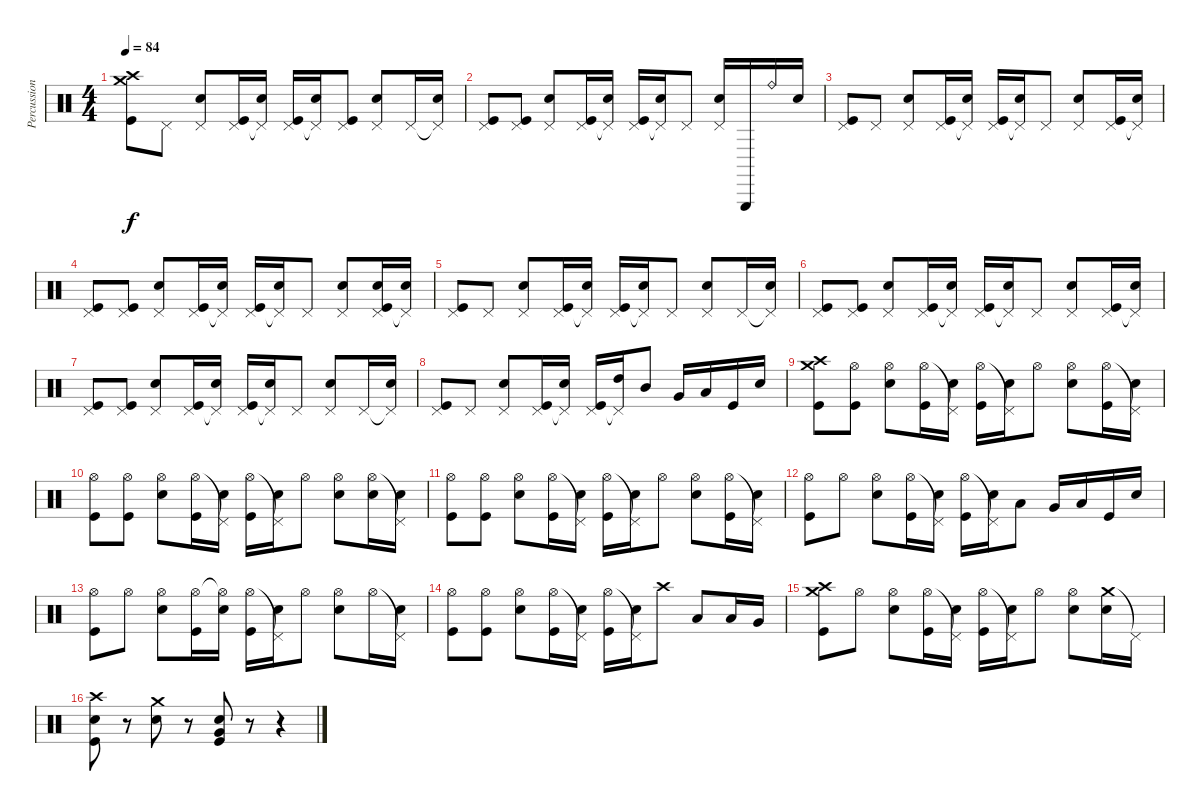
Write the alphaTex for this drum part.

\track ("Percussion" "Percussion") {instrument percussion}
\staff {score}
\articulation defaults
\ts (4 4)
\tempo 84
\clef neutral
\ks c
("Crash medium (hit)" "Crash high (hit)" "Kick (hit)").8{dy f} "Pedal Hi-Hat (hit)".8 ("Pedal Hi-Hat (hit)" "Electric Snare (hit)").8 ("Pedal Hi-Hat (hit)" "Kick (hit)").16 ("Pedal Hi-Hat (hit)"{t} "Electric Snare (hit)").16 ("Pedal Hi-Hat (hit)" "Kick (hit)").16 ("Pedal Hi-Hat (hit)"{t} "Electric Snare (hit)").16 ("Pedal Hi-Hat (hit)" "Kick (hit)").8 ("Pedal Hi-Hat (hit)" "Electric Snare (hit)").8 "Pedal Hi-Hat (hit)".16 ("Pedal Hi-Hat (hit)"{t} "Electric Snare (hit)").16 |
("Pedal Hi-Hat (hit)" "Kick (hit)").8 ("Pedal Hi-Hat (hit)" "Kick (hit)").8 ("Pedal Hi-Hat (hit)" "Electric Snare (hit)").8 ("Pedal Hi-Hat (hit)" "Kick (hit)").16 ("Pedal Hi-Hat (hit)"{t} "Electric Snare (hit)").16 ("Pedal Hi-Hat (hit)" "Kick (hit)").16 ("Pedal Hi-Hat (hit)"{t} "Electric Snare (hit)").16 "Pedal Hi-Hat (hit)".8 ("Pedal Hi-Hat (hit)" "Electric Snare (hit)").16 "Triangle (hit)".16 "Ride (bell)".16 "Electric Snare (hit)".16 |
("Pedal Hi-Hat (hit)" "Kick (hit)").8 "Pedal Hi-Hat (hit)".8 ("Pedal Hi-Hat (hit)" "Electric Snare (hit)").8 ("Pedal Hi-Hat (hit)" "Kick (hit)").16 ("Pedal Hi-Hat (hit)"{t} "Electric Snare (hit)").16 ("Pedal Hi-Hat (hit)" "Kick (hit)").16 ("Pedal Hi-Hat (hit)"{t} "Electric Snare (hit)").16 "Pedal Hi-Hat (hit)".8 ("Pedal Hi-Hat (hit)" "Electric Snare (hit)").8 ("Pedal Hi-Hat (hit)" "Kick (hit)").16 ("Pedal Hi-Hat (hit)"{t} "Electric Snare (hit)").16 |
("Pedal Hi-Hat (hit)" "Kick (hit)").8 ("Pedal Hi-Hat (hit)" "Kick (hit)").8 ("Pedal Hi-Hat (hit)" "Electric Snare (hit)").8 ("Pedal Hi-Hat (hit)" "Kick (hit)").16 ("Pedal Hi-Hat (hit)"{t} "Electric Snare (hit)").16 ("Pedal Hi-Hat (hit)" "Kick (hit)").16 ("Pedal Hi-Hat (hit)"{t} "Electric Snare (hit)").16 "Pedal Hi-Hat (hit)".8 ("Pedal Hi-Hat (hit)" "Electric Snare (hit)").8 ("Pedal Hi-Hat (hit)" "Electric Snare (hit)" "Kick (hit)").16 ("Pedal Hi-Hat (hit)"{t} "Electric Snare (hit)").16 |
("Pedal Hi-Hat (hit)" "Kick (hit)").8 "Pedal Hi-Hat (hit)".8 ("Pedal Hi-Hat (hit)" "Electric Snare (hit)").8 ("Pedal Hi-Hat (hit)" "Kick (hit)").16 ("Pedal Hi-Hat (hit)"{t} "Electric Snare (hit)").16 ("Pedal Hi-Hat (hit)" "Kick (hit)").16 ("Pedal Hi-Hat (hit)"{t} "Electric Snare (hit)").16 "Pedal Hi-Hat (hit)".8 ("Pedal Hi-Hat (hit)" "Electric Snare (hit)").8 "Pedal Hi-Hat (hit)".16 ("Pedal Hi-Hat (hit)"{t} "Electric Snare (hit)").16 |
("Pedal Hi-Hat (hit)" "Kick (hit)").8 ("Pedal Hi-Hat (hit)" "Kick (hit)").8 ("Pedal Hi-Hat (hit)" "Electric Snare (hit)").8 ("Pedal Hi-Hat (hit)" "Kick (hit)").16 ("Pedal Hi-Hat (hit)"{t} "Electric Snare (hit)").16 ("Pedal Hi-Hat (hit)" "Kick (hit)").16 ("Pedal Hi-Hat (hit)"{t} "Electric Snare (hit)").16 "Pedal Hi-Hat (hit)".8 ("Pedal Hi-Hat (hit)" "Electric Snare (hit)").8 ("Pedal Hi-Hat (hit)" "Kick (hit)").16 ("Pedal Hi-Hat (hit)"{t} "Electric Snare (hit)").16 |
("Pedal Hi-Hat (hit)" "Kick (hit)").8 ("Pedal Hi-Hat (hit)" "Kick (hit)").8 ("Pedal Hi-Hat (hit)" "Electric Snare (hit)").8 ("Pedal Hi-Hat (hit)" "Kick (hit)").16 ("Pedal Hi-Hat (hit)"{t} "Electric Snare (hit)").16 ("Pedal Hi-Hat (hit)" "Kick (hit)").16 ("Pedal Hi-Hat (hit)"{t} "Electric Snare (hit)").16 "Pedal Hi-Hat (hit)".8 ("Pedal Hi-Hat (hit)" "Electric Snare (hit)").8 "Pedal Hi-Hat (hit)".16 ("Pedal Hi-Hat (hit)"{t} "Electric Snare (hit)").16 |
("Pedal Hi-Hat (hit)" "Kick (hit)").8 "Pedal Hi-Hat (hit)".8 ("Pedal Hi-Hat (hit)" "Electric Snare (hit)").8 ("Pedal Hi-Hat (hit)" "Kick (hit)").16 ("Pedal Hi-Hat (hit)"{t} "Electric Snare (hit)").16 ("Pedal Hi-Hat (hit)" "Kick (hit)").16 ("Pedal Hi-Hat (hit)"{t} "High Tom (hit)").16 "Mid Tom (hit)".8 "Very Low Tom (hit)".16 "Low Floor Tom (hit)".16 "Kick (hit)".16 "Electric Snare (hit)".16 |
("Crash medium (hit)" "Crash high (hit)" "Kick (hit)").8 ("Hi-Hat (open)" "Kick (hit)").8 ("Hi-Hat (open)" "Electric Snare (hit)").8 ("Hi-Hat (open)" "Kick (hit)").16 ("Pedal Hi-Hat (hit)"{t} "Electric Snare (hit)").16 ("Hi-Hat (open)" "Kick (hit)").16 ("Pedal Hi-Hat (hit)"{t} "Electric Snare (hit)").16 "Hi-Hat (open)".8 ("Hi-Hat (open)" "Electric Snare (hit)").8 ("Hi-Hat (open)" "Kick (hit)").16 ("Pedal Hi-Hat (hit)"{t} "Electric Snare (hit)").16 |
("Hi-Hat (open)" "Kick (hit)").8 ("Hi-Hat (open)" "Kick (hit)").8 ("Hi-Hat (open)" "Electric Snare (hit)").8 ("Hi-Hat (open)" "Kick (hit)").16 ("Pedal Hi-Hat (hit)"{t} "Electric Snare (hit)").16 ("Hi-Hat (open)" "Kick (hit)").16 ("Pedal Hi-Hat (hit)"{t} "Electric Snare (hit)").16 "Hi-Hat (open)".8 ("Hi-Hat (open)" "Electric Snare (hit)").8 ("Hi-Hat (open)" "Electric Snare (hit)").16 ("Pedal Hi-Hat (hit)"{t} "Electric Snare (hit)").16 |
("Hi-Hat (open)" "Kick (hit)").8 ("Hi-Hat (open)" "Kick (hit)").8 ("Hi-Hat (open)" "Electric Snare (hit)").8 ("Hi-Hat (open)" "Kick (hit)").16 ("Pedal Hi-Hat (hit)"{t} "Electric Snare (hit)").16 ("Hi-Hat (open)" "Kick (hit)").16 ("Pedal Hi-Hat (hit)"{t} "Electric Snare (hit)").16 "Hi-Hat (open)".8 ("Hi-Hat (open)" "Electric Snare (hit)").8 ("Hi-Hat (open)" "Kick (hit)").16 ("Pedal Hi-Hat (hit)"{t} "Electric Snare (hit)").16 |
("Hi-Hat (open)" "Kick (hit)").8 "Hi-Hat (open)".8 ("Hi-Hat (open)" "Electric Snare (hit)").8 ("Hi-Hat (open)" "Kick (hit)").16 ("Pedal Hi-Hat (hit)"{t} "Electric Snare (hit)").16 ("Hi-Hat (open)" "Kick (hit)").16 ("Pedal Hi-Hat (hit)"{t} "Electric Snare (hit)").16 "Low Tom (hit)".8 "Very Low Tom (hit)".16 "Low Floor Tom (hit)".16 "Kick (hit)".16 "Electric Snare (hit)".16 |
("Hi-Hat (open)" "Kick (hit)").8 "Hi-Hat (open)".8 ("Hi-Hat (open)" "Electric Snare (hit)").8 ("Hi-Hat (open)" "Kick (hit)").16 ("Hi-Hat (open)"{t} "Electric Snare (hit)").16 ("Hi-Hat (open)" "Kick (hit)").16 ("Pedal Hi-Hat (hit)"{t} "Electric Snare (hit)").16 "Hi-Hat (open)".8 ("Hi-Hat (open)" "Electric Snare (hit)").8 "Hi-Hat (open)".16 ("Pedal Hi-Hat (hit)"{t} "Electric Snare (hit)").16 |
("Hi-Hat (open)" "Kick (hit)").8 ("Hi-Hat (open)" "Kick (hit)").8 ("Hi-Hat (open)" "Electric Snare (hit)").8 ("Hi-Hat (open)" "Kick (hit)").16 ("Pedal Hi-Hat (hit)"{t} "Electric Snare (hit)").16 ("Hi-Hat (open)" "Kick (hit)").16 ("Pedal Hi-Hat (hit)"{t} "Electric Snare (hit)").16 "Crash high (hit)".8 "Low Tom (hit)".8 "Low Tom (hit)".16 "Very Low Tom (hit)".16 |
("Crash medium (hit)" "Crash high (hit)" "Kick (hit)").8 "Hi-Hat (open)".8 ("Hi-Hat (open)" "Electric Snare (hit)").8 ("Hi-Hat (open)" "Kick (hit)").16 ("Pedal Hi-Hat (hit)"{t} "Electric Snare (hit)").16 ("Hi-Hat (open)" "Kick (hit)").16 ("Pedal Hi-Hat (hit)"{t} "Electric Snare (hit)").16 "Hi-Hat (open)".8 ("Hi-Hat (open)" "Electric Snare (hit)").8 ("Crash medium (hit)" "Electric Snare (hit)").16 "Pedal Hi-Hat (hit)"{t}.16 |
("Crash high (hit)" "Electric Snare (hit)" "Kick (hit)").8 r.8 ("Crash medium (hit)" "Electric Snare (hit)").8 r.8 ("Electric Snare (hit)" "Very Low Tom (hit)" "Kick (hit)").8 r.8 r.4
